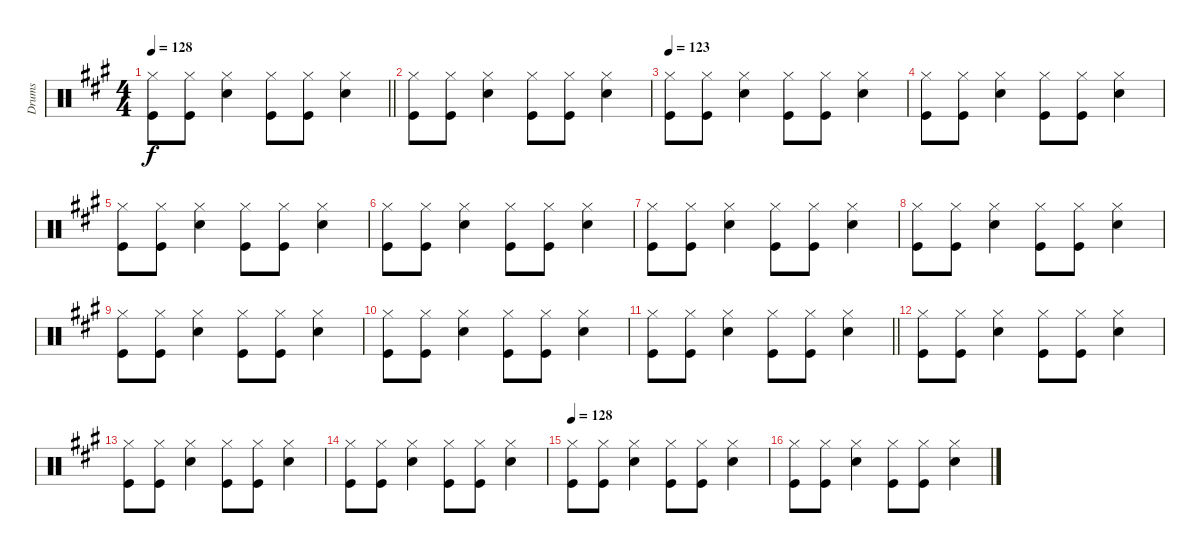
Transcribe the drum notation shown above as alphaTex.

\track ("Drums" "Drums") {instrument percussion}
\staff {score}
\articulation defaults
\ts (4 4)
\tempo 128
\clef neutral
\barLineRight lightlight
\ks a
("Hi-Hat (closed)" "Kick (hit)").8{dy f} ("Hi-Hat (closed)" "Kick (hit)").8 ("Hi-Hat (closed)" "Snare (hit) 2").4 ("Hi-Hat (closed)" "Kick (hit)").8 ("Hi-Hat (closed)" "Kick (hit)").8 ("Hi-Hat (closed)" "Snare (hit) 2").4 |
("Hi-Hat (closed)" "Kick (hit)").8 ("Hi-Hat (closed)" "Kick (hit)").8 ("Hi-Hat (closed)" "Snare (hit) 2").4 ("Hi-Hat (closed)" "Kick (hit)").8 ("Hi-Hat (closed)" "Kick (hit)").8 ("Hi-Hat (closed)" "Snare (hit) 2").4 |
\tempo 123
("Hi-Hat (closed)" "Kick (hit)").8 ("Hi-Hat (closed)" "Kick (hit)").8 ("Hi-Hat (closed)" "Snare (hit) 2").4 ("Hi-Hat (closed)" "Kick (hit)").8 ("Hi-Hat (closed)" "Kick (hit)").8 ("Hi-Hat (closed)" "Snare (hit) 2").4 |
("Hi-Hat (closed)" "Kick (hit)").8 ("Hi-Hat (closed)" "Kick (hit)").8 ("Hi-Hat (closed)" "Snare (hit) 2").4 ("Hi-Hat (closed)" "Kick (hit)").8 ("Hi-Hat (closed)" "Kick (hit)").8 ("Hi-Hat (closed)" "Snare (hit) 2").4 |
("Hi-Hat (closed)" "Kick (hit)").8 ("Hi-Hat (closed)" "Kick (hit)").8 ("Hi-Hat (closed)" "Snare (hit) 2").4 ("Hi-Hat (closed)" "Kick (hit)").8 ("Hi-Hat (closed)" "Kick (hit)").8 ("Hi-Hat (closed)" "Snare (hit) 2").4 |
("Hi-Hat (closed)" "Kick (hit)").8 ("Hi-Hat (closed)" "Kick (hit)").8 ("Hi-Hat (closed)" "Snare (hit) 2").4 ("Hi-Hat (closed)" "Kick (hit)").8 ("Hi-Hat (closed)" "Kick (hit)").8 ("Hi-Hat (closed)" "Snare (hit) 2").4 |
("Hi-Hat (closed)" "Kick (hit)").8 ("Hi-Hat (closed)" "Kick (hit)").8 ("Hi-Hat (closed)" "Snare (hit) 2").4 ("Hi-Hat (closed)" "Kick (hit)").8 ("Hi-Hat (closed)" "Kick (hit)").8 ("Hi-Hat (closed)" "Snare (hit) 2").4 |
("Hi-Hat (closed)" "Kick (hit)").8 ("Hi-Hat (closed)" "Kick (hit)").8 ("Hi-Hat (closed)" "Snare (hit) 2").4 ("Hi-Hat (closed)" "Kick (hit)").8 ("Hi-Hat (closed)" "Kick (hit)").8 ("Hi-Hat (closed)" "Snare (hit) 2").4 |
("Hi-Hat (closed)" "Kick (hit)").8 ("Hi-Hat (closed)" "Kick (hit)").8 ("Hi-Hat (closed)" "Snare (hit) 2").4 ("Hi-Hat (closed)" "Kick (hit)").8 ("Hi-Hat (closed)" "Kick (hit)").8 ("Hi-Hat (closed)" "Snare (hit) 2").4 |
("Hi-Hat (closed)" "Kick (hit)").8 ("Hi-Hat (closed)" "Kick (hit)").8 ("Hi-Hat (closed)" "Snare (hit) 2").4 ("Hi-Hat (closed)" "Kick (hit)").8 ("Hi-Hat (closed)" "Kick (hit)").8 ("Hi-Hat (closed)" "Snare (hit) 2").4 |
\barLineRight lightlight
("Hi-Hat (closed)" "Kick (hit)").8 ("Hi-Hat (closed)" "Kick (hit)").8 ("Hi-Hat (closed)" "Snare (hit) 2").4 ("Hi-Hat (closed)" "Kick (hit)").8 ("Hi-Hat (closed)" "Kick (hit)").8 ("Hi-Hat (closed)" "Snare (hit) 2").4 |
("Hi-Hat (closed)" "Kick (hit)").8 ("Hi-Hat (closed)" "Kick (hit)").8 ("Hi-Hat (closed)" "Snare (hit) 2").4 ("Hi-Hat (closed)" "Kick (hit)").8 ("Hi-Hat (closed)" "Kick (hit)").8 ("Hi-Hat (closed)" "Snare (hit) 2").4 |
("Hi-Hat (closed)" "Kick (hit)").8 ("Hi-Hat (closed)" "Kick (hit)").8 ("Hi-Hat (closed)" "Snare (hit) 2").4 ("Hi-Hat (closed)" "Kick (hit)").8 ("Hi-Hat (closed)" "Kick (hit)").8 ("Hi-Hat (closed)" "Snare (hit) 2").4 |
("Hi-Hat (closed)" "Kick (hit)").8 ("Hi-Hat (closed)" "Kick (hit)").8 ("Hi-Hat (closed)" "Snare (hit) 2").4 ("Hi-Hat (closed)" "Kick (hit)").8 ("Hi-Hat (closed)" "Kick (hit)").8 ("Hi-Hat (closed)" "Snare (hit) 2").4 |
\tempo 128
("Hi-Hat (closed)" "Kick (hit)").8 ("Hi-Hat (closed)" "Kick (hit)").8 ("Hi-Hat (closed)" "Snare (hit) 2").4 ("Hi-Hat (closed)" "Kick (hit)").8 ("Hi-Hat (closed)" "Kick (hit)").8 ("Hi-Hat (closed)" "Snare (hit) 2").4 |
("Hi-Hat (closed)" "Kick (hit)").8 ("Hi-Hat (closed)" "Kick (hit)").8 ("Hi-Hat (closed)" "Snare (hit) 2").4 ("Hi-Hat (closed)" "Kick (hit)").8 ("Hi-Hat (closed)" "Kick (hit)").8 ("Hi-Hat (closed)" "Snare (hit) 2").4
